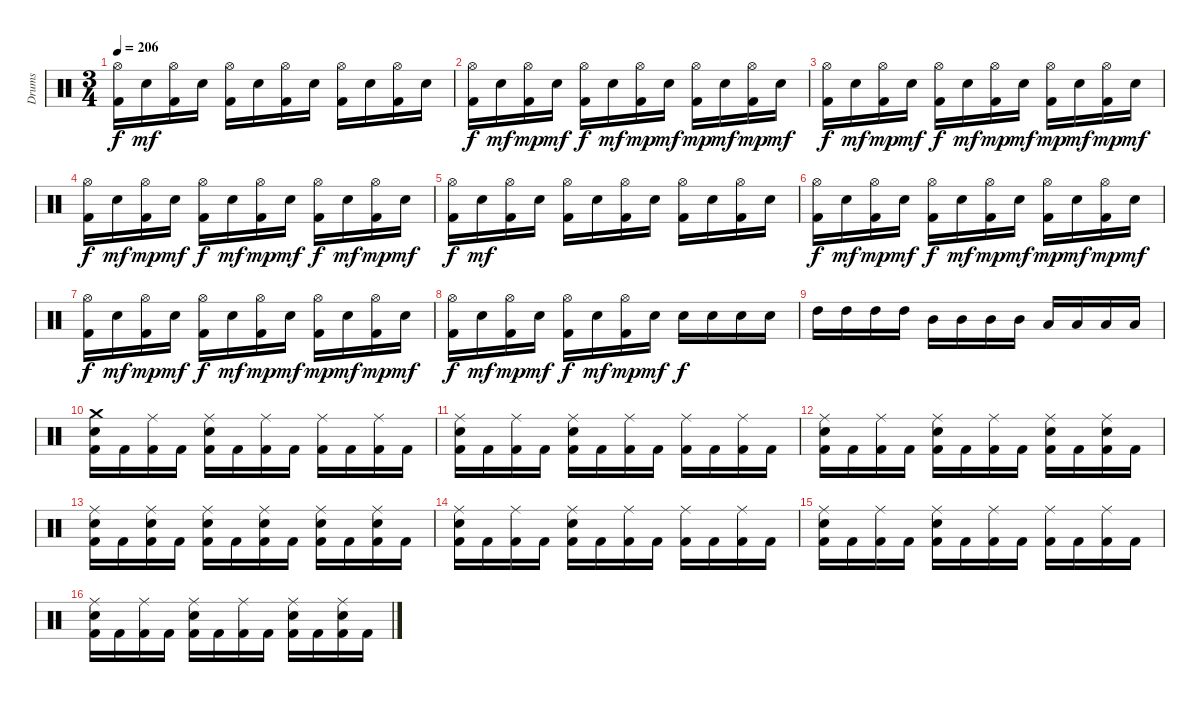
\track ("Drums" "Drums") {instrument percussion}
\staff {score}
\articulation defaults
\ts (3 4)
\tempo 206
\clef neutral
\ks c
("Hi-Hat (open)" "Kick (hit) 2").16{dy f} "Electric Snare (hit)".16{dy mf} ("Hi-Hat (open)" "Kick (hit) 2").16 "Electric Snare (hit)".16 ("Hi-Hat (open)" "Kick (hit) 2").16 "Electric Snare (hit)".16 ("Hi-Hat (open)" "Kick (hit) 2").16 "Electric Snare (hit)".16 ("Hi-Hat (open)" "Kick (hit) 2").16 "Electric Snare (hit)".16 ("Hi-Hat (open)" "Kick (hit) 2").16 "Electric Snare (hit)".16 |
("Hi-Hat (open)" "Kick (hit) 2").16{dy f} "Electric Snare (hit)".16{dy mf} ("Hi-Hat (open)" "Kick (hit) 2").16{dy mp} "Electric Snare (hit)".16{dy mf} ("Hi-Hat (open)" "Kick (hit) 2").16{dy f} "Electric Snare (hit)".16{dy mf} ("Hi-Hat (open)" "Kick (hit) 2").16{dy mp} "Electric Snare (hit)".16{dy mf} ("Hi-Hat (open)" "Kick (hit) 2").16{dy mp} "Electric Snare (hit)".16{dy mf} ("Hi-Hat (open)" "Kick (hit) 2").16{dy mp} "Electric Snare (hit)".16{dy mf} |
("Hi-Hat (open)" "Kick (hit) 2").16{dy f} "Electric Snare (hit)".16{dy mf} ("Hi-Hat (open)" "Kick (hit) 2").16{dy mp} "Electric Snare (hit)".16{dy mf} ("Hi-Hat (open)" "Kick (hit) 2").16{dy f} "Electric Snare (hit)".16{dy mf} ("Hi-Hat (open)" "Kick (hit) 2").16{dy mp} "Electric Snare (hit)".16{dy mf} ("Hi-Hat (open)" "Kick (hit) 2").16{dy mp} "Electric Snare (hit)".16{dy mf} ("Hi-Hat (open)" "Kick (hit) 2").16{dy mp} "Electric Snare (hit)".16{dy mf} |
("Hi-Hat (open)" "Kick (hit) 2").16{dy f} "Electric Snare (hit)".16{dy mf} ("Hi-Hat (open)" "Kick (hit) 2").16{dy mp} "Electric Snare (hit)".16{dy mf} ("Hi-Hat (open)" "Kick (hit) 2").16{dy f} "Electric Snare (hit)".16{dy mf} ("Hi-Hat (open)" "Kick (hit) 2").16{dy mp} "Electric Snare (hit)".16{dy mf} ("Hi-Hat (open)" "Kick (hit) 2").16{dy f} "Electric Snare (hit)".16{dy mf} ("Hi-Hat (open)" "Kick (hit) 2").16{dy mp} "Electric Snare (hit)".16{dy mf} |
("Hi-Hat (open)" "Kick (hit) 2").16{dy f} "Electric Snare (hit)".16{dy mf} ("Hi-Hat (open)" "Kick (hit) 2").16 "Electric Snare (hit)".16 ("Hi-Hat (open)" "Kick (hit) 2").16 "Electric Snare (hit)".16 ("Hi-Hat (open)" "Kick (hit) 2").16 "Electric Snare (hit)".16 ("Hi-Hat (open)" "Kick (hit) 2").16 "Electric Snare (hit)".16 ("Hi-Hat (open)" "Kick (hit) 2").16 "Electric Snare (hit)".16 |
("Hi-Hat (open)" "Kick (hit) 2").16{dy f} "Electric Snare (hit)".16{dy mf} ("Hi-Hat (open)" "Kick (hit) 2").16{dy mp} "Electric Snare (hit)".16{dy mf} ("Hi-Hat (open)" "Kick (hit) 2").16{dy f} "Electric Snare (hit)".16{dy mf} ("Hi-Hat (open)" "Kick (hit) 2").16{dy mp} "Electric Snare (hit)".16{dy mf} ("Hi-Hat (open)" "Kick (hit) 2").16{dy mp} "Electric Snare (hit)".16{dy mf} ("Hi-Hat (open)" "Kick (hit) 2").16{dy mp} "Electric Snare (hit)".16{dy mf} |
("Hi-Hat (open)" "Kick (hit) 2").16{dy f} "Electric Snare (hit)".16{dy mf} ("Hi-Hat (open)" "Kick (hit) 2").16{dy mp} "Electric Snare (hit)".16{dy mf} ("Hi-Hat (open)" "Kick (hit) 2").16{dy f} "Electric Snare (hit)".16{dy mf} ("Hi-Hat (open)" "Kick (hit) 2").16{dy mp} "Electric Snare (hit)".16{dy mf} ("Hi-Hat (open)" "Kick (hit) 2").16{dy mp} "Electric Snare (hit)".16{dy mf} ("Hi-Hat (open)" "Kick (hit) 2").16{dy mp} "Electric Snare (hit)".16{dy mf} |
("Hi-Hat (open)" "Kick (hit) 2").16{dy f} "Electric Snare (hit)".16{dy mf} ("Hi-Hat (open)" "Kick (hit) 2").16{dy mp} "Electric Snare (hit)".16{dy mf} ("Hi-Hat (open)" "Kick (hit) 2").16{dy f} "Electric Snare (hit)".16{dy mf} ("Hi-Hat (open)" "Kick (hit) 2").16{dy mp} "Electric Snare (hit)".16{dy mf} "Electric Snare (hit)".16{dy f} "Electric Snare (hit)".16 "Electric Snare (hit)".16 "Electric Snare (hit)".16 |
"High Tom (hit)".16 "High Tom (hit)".16 "High Tom (hit)".16 "High Tom (hit)".16 "Mid Tom (hit)".16 "Mid Tom (hit)".16 "Mid Tom (hit)".16 "Mid Tom (hit)".16 "Low Tom (hit)".16 "Low Tom (hit)".16 "Low Tom (hit)".16 "Low Tom (hit)".16 |
("Crash medium (hit)" "Electric Snare (hit)" "Kick (hit) 2").16 "Kick (hit) 2".16 ("Ride (middle)" "Kick (hit) 2").16 "Kick (hit) 2".16 ("Ride (middle)" "Electric Snare (hit)" "Kick (hit) 2").16 "Kick (hit) 2".16 ("Ride (middle)" "Kick (hit) 2").16 "Kick (hit) 2".16 ("Ride (middle)" "Kick (hit) 2").16 "Kick (hit) 2".16 ("Ride (middle)" "Kick (hit) 2").16 "Kick (hit) 2".16 |
("Ride (middle)" "Electric Snare (hit)" "Kick (hit) 2").16 "Kick (hit) 2".16 ("Ride (middle)" "Kick (hit) 2").16 "Kick (hit) 2".16 ("Ride (middle)" "Electric Snare (hit)" "Kick (hit) 2").16 "Kick (hit) 2".16 ("Ride (middle)" "Kick (hit) 2").16 "Kick (hit) 2".16 ("Ride (middle)" "Kick (hit) 2").16 "Kick (hit) 2".16 ("Ride (middle)" "Kick (hit) 2").16 "Kick (hit) 2".16 |
("Ride (middle)" "Electric Snare (hit)" "Kick (hit) 2").16 "Kick (hit) 2".16 ("Ride (middle)" "Kick (hit) 2").16 "Kick (hit) 2".16 ("Ride (middle)" "Electric Snare (hit)" "Kick (hit) 2").16 "Kick (hit) 2".16 ("Ride (middle)" "Kick (hit) 2").16 "Kick (hit) 2".16 ("Ride (middle)" "Electric Snare (hit)" "Kick (hit) 2").16 "Kick (hit) 2".16 ("Ride (middle)" "Electric Snare (hit)" "Kick (hit) 2").16 "Kick (hit) 2".16 |
("Ride (middle)" "Electric Snare (hit)" "Kick (hit) 2").16 "Kick (hit) 2".16 ("Ride (middle)" "Electric Snare (hit)" "Kick (hit) 2").16 "Kick (hit) 2".16 ("Ride (middle)" "Electric Snare (hit)" "Kick (hit) 2").16 "Kick (hit) 2".16 ("Ride (middle)" "Electric Snare (hit)" "Kick (hit) 2").16 "Kick (hit) 2".16 ("Ride (middle)" "Electric Snare (hit)" "Kick (hit) 2").16 "Kick (hit) 2".16 ("Ride (middle)" "Electric Snare (hit)" "Kick (hit) 2").16 "Kick (hit) 2".16 |
("Ride (middle)" "Electric Snare (hit)" "Kick (hit) 2").16 "Kick (hit) 2".16 ("Ride (middle)" "Kick (hit) 2").16 "Kick (hit) 2".16 ("Ride (middle)" "Electric Snare (hit)" "Kick (hit) 2").16 "Kick (hit) 2".16 ("Ride (middle)" "Kick (hit) 2").16 "Kick (hit) 2".16 ("Ride (middle)" "Kick (hit) 2").16 "Kick (hit) 2".16 ("Ride (middle)" "Kick (hit) 2").16 "Kick (hit) 2".16 |
("Ride (middle)" "Electric Snare (hit)" "Kick (hit) 2").16 "Kick (hit) 2".16 ("Ride (middle)" "Kick (hit) 2").16 "Kick (hit) 2".16 ("Ride (middle)" "Electric Snare (hit)" "Kick (hit) 2").16 "Kick (hit) 2".16 ("Ride (middle)" "Kick (hit) 2").16 "Kick (hit) 2".16 ("Ride (middle)" "Kick (hit) 2").16 "Kick (hit) 2".16 ("Ride (middle)" "Kick (hit) 2").16 "Kick (hit) 2".16 |
("Ride (middle)" "Electric Snare (hit)" "Kick (hit) 2").16 "Kick (hit) 2".16 ("Ride (middle)" "Kick (hit) 2").16 "Kick (hit) 2".16 ("Ride (middle)" "Electric Snare (hit)" "Kick (hit) 2").16 "Kick (hit) 2".16 ("Ride (middle)" "Kick (hit) 2").16 "Kick (hit) 2".16 ("Ride (middle)" "Electric Snare (hit)" "Kick (hit) 2").16 "Kick (hit) 2".16 ("Ride (middle)" "Electric Snare (hit)" "Kick (hit) 2").16 "Kick (hit) 2".16
